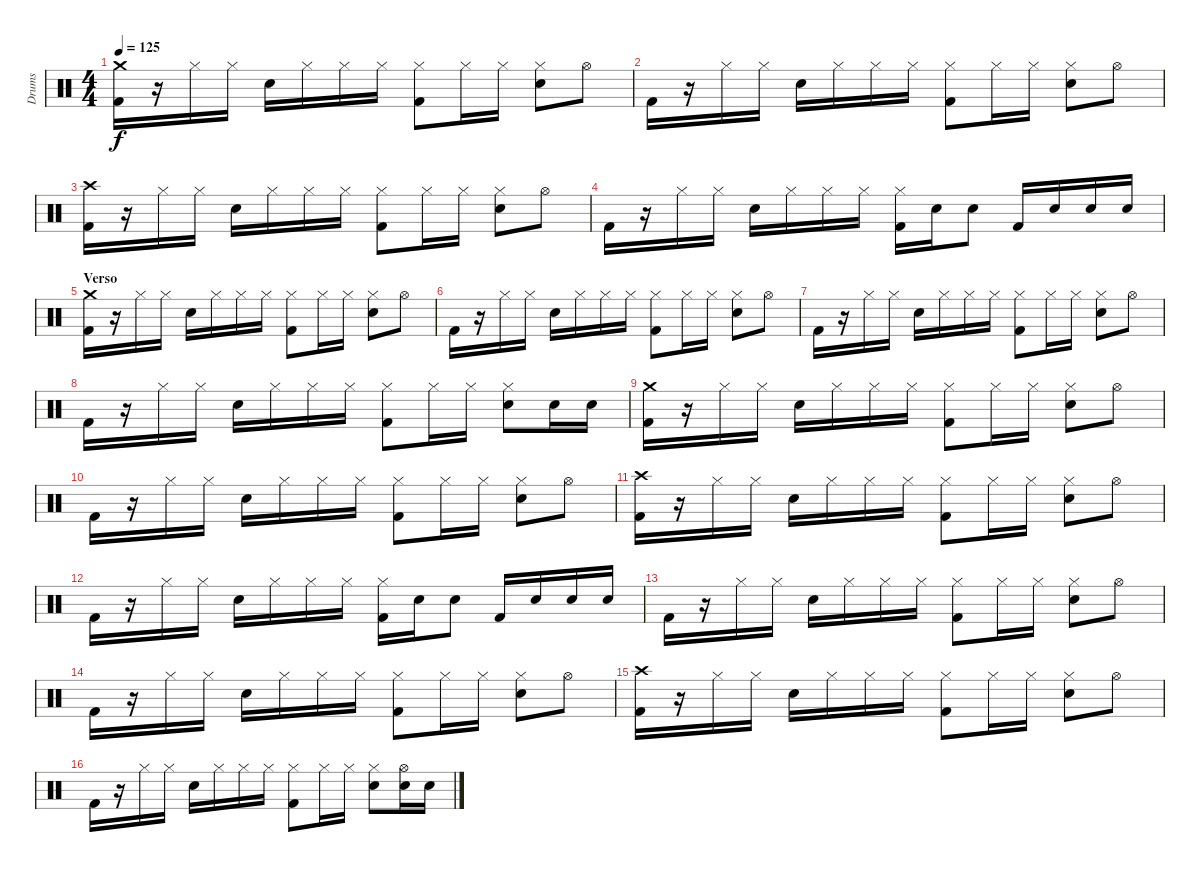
\track ("Drums" "Drums") {instrument percussion}
\staff {score}
\articulation defaults
\ts (4 4)
\tempo 125
\clef neutral
\ks c
("Crash medium (hit)" "Kick (hit) 2").16{dy f} r.16 "Hi-Hat (closed)".16 "Hi-Hat (closed)".16 "Electric Snare (hit)".16 "Hi-Hat (closed)".16 "Hi-Hat (closed)".16 "Hi-Hat (closed)".16 ("Hi-Hat (closed)" "Kick (hit) 2").8 "Hi-Hat (closed)".16 "Hi-Hat (closed)".16 ("Hi-Hat (closed)" "Electric Snare (hit)").8 "Hi-Hat (open)".8 |
"Kick (hit) 2".16 r.16 "Hi-Hat (closed)".16 "Hi-Hat (closed)".16 "Electric Snare (hit)".16 "Hi-Hat (closed)".16 "Hi-Hat (closed)".16 "Hi-Hat (closed)".16 ("Hi-Hat (closed)" "Kick (hit) 2").8 "Hi-Hat (closed)".16 "Hi-Hat (closed)".16 ("Hi-Hat (closed)" "Electric Snare (hit)").8 "Hi-Hat (open)".8 |
("Crash high (hit)" "Kick (hit) 2").16 r.16 "Hi-Hat (closed)".16 "Hi-Hat (closed)".16 "Electric Snare (hit)".16 "Hi-Hat (closed)".16 "Hi-Hat (closed)".16 "Hi-Hat (closed)".16 ("Hi-Hat (closed)" "Kick (hit) 2").8 "Hi-Hat (closed)".16 "Hi-Hat (closed)".16 ("Hi-Hat (closed)" "Electric Snare (hit)").8 "Hi-Hat (open)".8 |
"Kick (hit) 2".16 r.16 "Hi-Hat (closed)".16 "Hi-Hat (closed)".16 "Electric Snare (hit)".16 "Hi-Hat (closed)".16 "Hi-Hat (closed)".16 "Hi-Hat (closed)".16 ("Hi-Hat (closed)" "Kick (hit) 2").16 "Electric Snare (hit)".16 "Electric Snare (hit)".8 "Kick (hit) 2".16 "Electric Snare (hit)".16 "Electric Snare (hit)".16 "Electric Snare (hit)".16 |
\section ("" "Verso")
("Crash medium (hit)" "Kick (hit) 2").16 r.16 "Hi-Hat (closed)".16 "Hi-Hat (closed)".16 "Electric Snare (hit)".16 "Hi-Hat (closed)".16 "Hi-Hat (closed)".16 "Hi-Hat (closed)".16 ("Hi-Hat (closed)" "Kick (hit) 2").8 "Hi-Hat (closed)".16 "Hi-Hat (closed)".16 ("Hi-Hat (closed)" "Electric Snare (hit)").8 "Hi-Hat (open)".8 |
"Kick (hit) 2".16 r.16 "Hi-Hat (closed)".16 "Hi-Hat (closed)".16 "Electric Snare (hit)".16 "Hi-Hat (closed)".16 "Hi-Hat (closed)".16 "Hi-Hat (closed)".16 ("Hi-Hat (closed)" "Kick (hit) 2").8 "Hi-Hat (closed)".16 "Hi-Hat (closed)".16 ("Hi-Hat (closed)" "Electric Snare (hit)").8 "Hi-Hat (open)".8 |
"Kick (hit) 2".16 r.16 "Hi-Hat (closed)".16 "Hi-Hat (closed)".16 "Electric Snare (hit)".16 "Hi-Hat (closed)".16 "Hi-Hat (closed)".16 "Hi-Hat (closed)".16 ("Hi-Hat (closed)" "Kick (hit) 2").8 "Hi-Hat (closed)".16 "Hi-Hat (closed)".16 ("Hi-Hat (closed)" "Electric Snare (hit)").8 "Hi-Hat (open)".8 |
"Kick (hit) 2".16 r.16 "Hi-Hat (closed)".16 "Hi-Hat (closed)".16 "Electric Snare (hit)".16 "Hi-Hat (closed)".16 "Hi-Hat (closed)".16 "Hi-Hat (closed)".16 ("Hi-Hat (closed)" "Kick (hit) 2").8 "Hi-Hat (closed)".16 "Hi-Hat (closed)".16 ("Hi-Hat (closed)" "Electric Snare (hit)").8 "Electric Snare (hit)".16 "Electric Snare (hit)".16 |
("Crash medium (hit)" "Kick (hit) 2").16 r.16 "Hi-Hat (closed)".16 "Hi-Hat (closed)".16 "Electric Snare (hit)".16 "Hi-Hat (closed)".16 "Hi-Hat (closed)".16 "Hi-Hat (closed)".16 ("Hi-Hat (closed)" "Kick (hit) 2").8 "Hi-Hat (closed)".16 "Hi-Hat (closed)".16 ("Hi-Hat (closed)" "Electric Snare (hit)").8 "Hi-Hat (open)".8 |
"Kick (hit) 2".16 r.16 "Hi-Hat (closed)".16 "Hi-Hat (closed)".16 "Electric Snare (hit)".16 "Hi-Hat (closed)".16 "Hi-Hat (closed)".16 "Hi-Hat (closed)".16 ("Hi-Hat (closed)" "Kick (hit) 2").8 "Hi-Hat (closed)".16 "Hi-Hat (closed)".16 ("Hi-Hat (closed)" "Electric Snare (hit)").8 "Hi-Hat (open)".8 |
("Crash high (hit)" "Kick (hit) 2").16 r.16 "Hi-Hat (closed)".16 "Hi-Hat (closed)".16 "Electric Snare (hit)".16 "Hi-Hat (closed)".16 "Hi-Hat (closed)".16 "Hi-Hat (closed)".16 ("Hi-Hat (closed)" "Kick (hit) 2").8 "Hi-Hat (closed)".16 "Hi-Hat (closed)".16 ("Hi-Hat (closed)" "Electric Snare (hit)").8 "Hi-Hat (open)".8 |
"Kick (hit) 2".16 r.16 "Hi-Hat (closed)".16 "Hi-Hat (closed)".16 "Electric Snare (hit)".16 "Hi-Hat (closed)".16 "Hi-Hat (closed)".16 "Hi-Hat (closed)".16 ("Hi-Hat (closed)" "Kick (hit) 2").16 "Electric Snare (hit)".16 "Electric Snare (hit)".8 "Kick (hit) 2".16 "Electric Snare (hit)".16 "Electric Snare (hit)".16 "Electric Snare (hit)".16 |
"Kick (hit) 2".16 r.16 "Hi-Hat (closed)".16 "Hi-Hat (closed)".16 "Electric Snare (hit)".16 "Hi-Hat (closed)".16 "Hi-Hat (closed)".16 "Hi-Hat (closed)".16 ("Hi-Hat (closed)" "Kick (hit) 2").8 "Hi-Hat (closed)".16 "Hi-Hat (closed)".16 ("Hi-Hat (closed)" "Electric Snare (hit)").8 "Hi-Hat (open)".8 |
"Kick (hit) 2".16 r.16 "Hi-Hat (closed)".16 "Hi-Hat (closed)".16 "Electric Snare (hit)".16 "Hi-Hat (closed)".16 "Hi-Hat (closed)".16 "Hi-Hat (closed)".16 ("Hi-Hat (closed)" "Kick (hit) 2").8 "Hi-Hat (closed)".16 "Hi-Hat (closed)".16 ("Hi-Hat (closed)" "Electric Snare (hit)").8 "Hi-Hat (open)".8 |
("Crash high (hit)" "Kick (hit) 2").16 r.16 "Hi-Hat (closed)".16 "Hi-Hat (closed)".16 "Electric Snare (hit)".16 "Hi-Hat (closed)".16 "Hi-Hat (closed)".16 "Hi-Hat (closed)".16 ("Hi-Hat (closed)" "Kick (hit) 2").8 "Hi-Hat (closed)".16 "Hi-Hat (closed)".16 ("Hi-Hat (closed)" "Electric Snare (hit)").8 "Hi-Hat (open)".8 |
"Kick (hit) 2".16 r.16 "Hi-Hat (closed)".16 "Hi-Hat (closed)".16 "Electric Snare (hit)".16 "Hi-Hat (closed)".16 "Hi-Hat (closed)".16 "Hi-Hat (closed)".16 ("Hi-Hat (closed)" "Kick (hit) 2").8 "Hi-Hat (closed)".16 "Hi-Hat (closed)".16 ("Hi-Hat (closed)" "Electric Snare (hit)").8 ("Hi-Hat (open)" "Electric Snare (hit)").16 "Electric Snare (hit)".16
